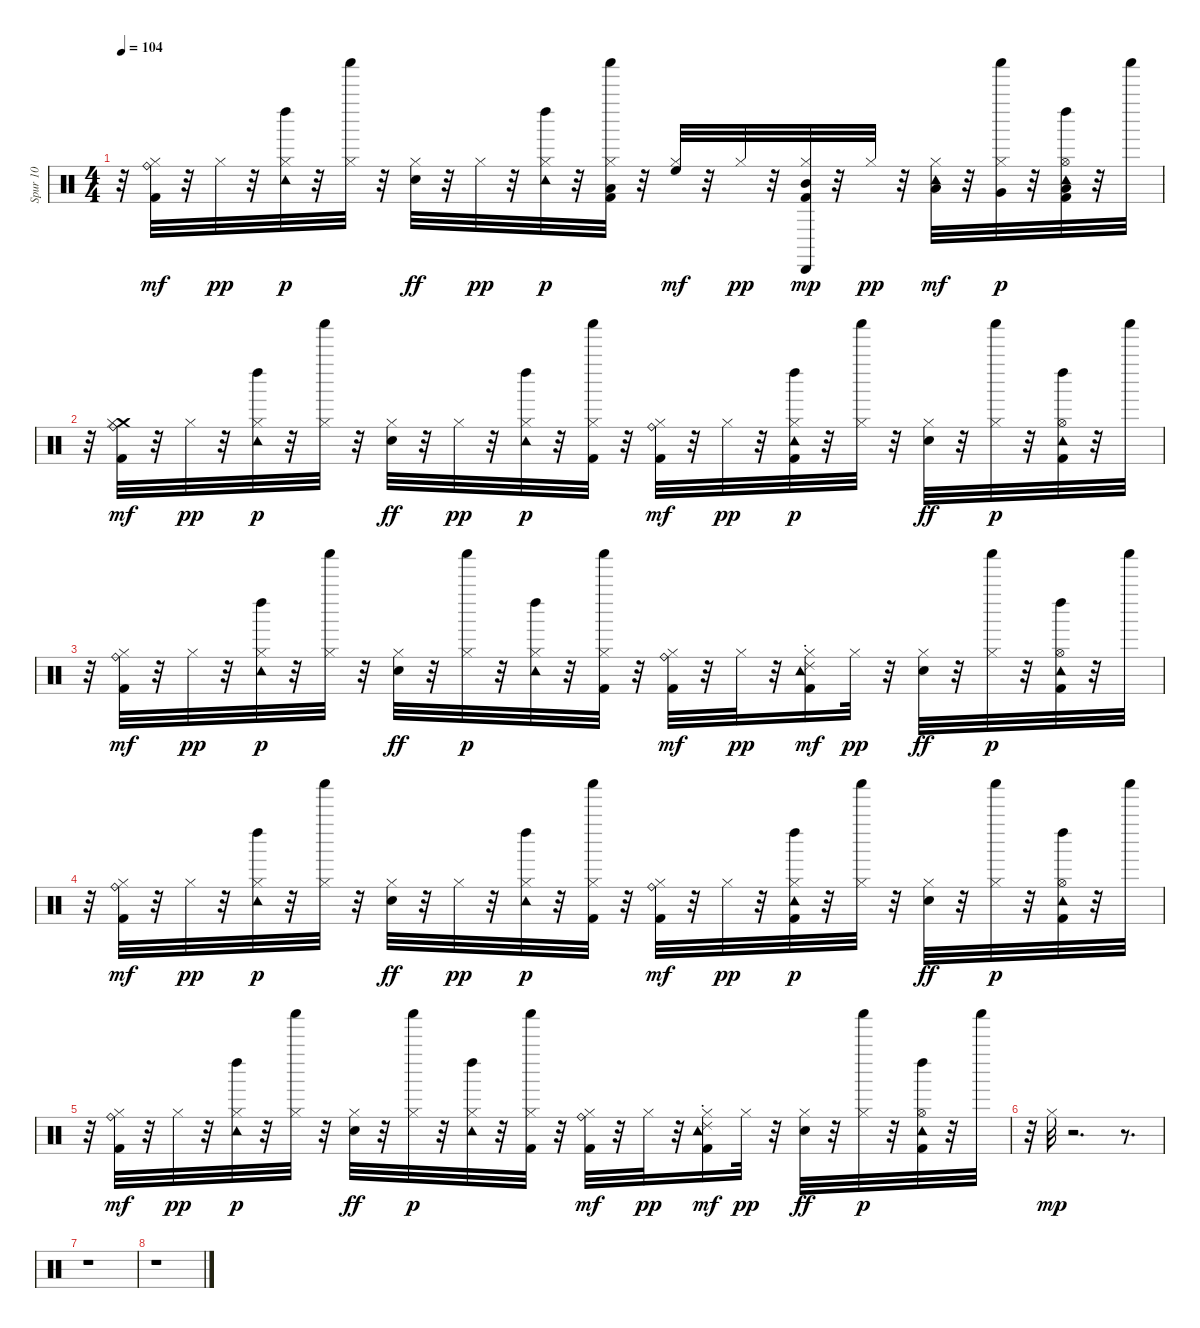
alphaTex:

\track ("Spur 10" "Spur 10") {instrument percussion}
\staff {score}
\articulation defaults
\ts (4 4)
\tempo 104
\clef neutral
\ks c
r.32{dy p} ("Hi-Hat (closed)" "Ride (bell)" "Kick (hit) 2").32{dy mf} r.32 "Hi-Hat (closed)".32{dy pp} r.32 ("Hi-Hat (closed)" "Tambourine (hit)" "Left Maraca (hit)").32{dy p} r.32 ("Hi-Hat (closed)" "Shaker (hit)").32 r.32 ("Hi-Hat (closed)" "Snare (hit) 2").32{dy ff} r.32 "Hi-Hat (closed)".32{dy pp} r.32 ("Hi-Hat (closed)" "Tambourine (hit)" "Left Maraca (hit)").32{dy p} r.32 ("Low Floor Tom (hit)" "Hi-Hat (closed)" "Kick (hit) 2" "Shaker (hit)").32 r.32 ("Hi-Hat (closed)" "High Floor Tom (hit)").32{dy mf} r.32 "Hi-Hat (closed)".32{dy pp} r.32 ("Hi-Hat (closed)" "Mid Tom (hit)" "Cabasa (hit)" "Kick (hit) 2").32{dy mp} r.32 "Hi-Hat (closed)".32{dy pp} r.32 ("Hi-Hat (closed)" "Low Tom (hit)" "Tambourine (hit)").32{dy mf} r.32 ("Hi-Hat (closed)" "Very Low Tom (hit)" "Shaker (hit)").32{dy p} r.32 ("Low Floor Tom (hit)" "Hi-Hat (open)" "Tambourine (hit)" "Kick (hit) 2" "Left Maraca (hit)").32 r.32 "Shaker (hit)".32 |
r.32 ("Crash medium (hit)" "Hi-Hat (closed)" "Ride (bell)" "Kick (hit) 2").32{dy mf} r.32 "Hi-Hat (closed)".32{dy pp} r.32 ("Hi-Hat (closed)" "Tambourine (hit)" "Left Maraca (hit)").32{dy p} r.32 ("Hi-Hat (closed)" "Shaker (hit)").32 r.32 ("Hi-Hat (closed)" "Snare (hit) 2").32{dy ff} r.32 "Hi-Hat (closed)".32{dy pp} r.32 ("Hi-Hat (closed)" "Tambourine (hit)" "Left Maraca (hit)").32{dy p} r.32 ("Hi-Hat (closed)" "Kick (hit) 2" "Shaker (hit)").32 r.32 ("Hi-Hat (closed)" "Ride (bell)" "Kick (hit) 2").32{dy mf} r.32 "Hi-Hat (closed)".32{dy pp} r.32 ("Hi-Hat (closed)" "Tambourine (hit)" "Kick (hit) 2" "Left Maraca (hit)").32{dy p} r.32 ("Hi-Hat (closed)" "Shaker (hit)").32 r.32 ("Hi-Hat (closed)" "Snare (hit) 2").32{dy ff} r.32 ("Hi-Hat (closed)" "Shaker (hit)").32{dy p} r.32 ("Hi-Hat (open)" "Tambourine (hit)" "Kick (hit) 2" "Left Maraca (hit)").32 r.32 "Shaker (hit)".32 |
r.32 ("Hi-Hat (closed)" "Ride (bell)" "Kick (hit) 2").32{dy mf} r.32 "Hi-Hat (closed)".32{dy pp} r.32 ("Hi-Hat (closed)" "Tambourine (hit)" "Left Maraca (hit)").32{dy p} r.32 ("Hi-Hat (closed)" "Shaker (hit)").32 r.32 ("Hi-Hat (closed)" "Snare (hit) 2").32{dy ff} r.32 ("Hi-Hat (closed)" "Shaker (hit)").32{dy p} r.32 ("Hi-Hat (closed)" "Tambourine (hit)" "Left Maraca (hit)").32 r.32 ("Hi-Hat (closed)" "Kick (hit) 2" "Shaker (hit)").32 r.32 ("Hi-Hat (closed)" "Ride (bell)" "Kick (hit) 2").32{dy mf} r.32 "Hi-Hat (closed)".32{dy pp} r.32 ("Ride (choke) 2" "Hi-Hat (closed)" "Tambourine (hit)" "Kick (hit) 2").16{dy mf} "Hi-Hat (closed)".32{dy pp} r.32 ("Hi-Hat (closed)" "Snare (hit) 2").32{dy ff} r.32 ("Hi-Hat (closed)" "Shaker (hit)").32{dy p} r.32 ("Hi-Hat (open)" "Tambourine (hit)" "Kick (hit) 2" "Left Maraca (hit)").32 r.32 "Shaker (hit)".32 |
r.32 ("Hi-Hat (closed)" "Ride (bell)" "Kick (hit) 2").32{dy mf} r.32 "Hi-Hat (closed)".32{dy pp} r.32 ("Hi-Hat (closed)" "Tambourine (hit)" "Left Maraca (hit)").32{dy p} r.32 ("Hi-Hat (closed)" "Shaker (hit)").32 r.32 ("Hi-Hat (closed)" "Snare (hit) 2").32{dy ff} r.32 "Hi-Hat (closed)".32{dy pp} r.32 ("Hi-Hat (closed)" "Tambourine (hit)" "Left Maraca (hit)").32{dy p} r.32 ("Hi-Hat (closed)" "Kick (hit) 2" "Shaker (hit)").32 r.32 ("Hi-Hat (closed)" "Ride (bell)" "Kick (hit) 2").32{dy mf} r.32 "Hi-Hat (closed)".32{dy pp} r.32 ("Hi-Hat (closed)" "Tambourine (hit)" "Kick (hit) 2" "Left Maraca (hit)").32{dy p} r.32 ("Hi-Hat (closed)" "Shaker (hit)").32 r.32 ("Hi-Hat (closed)" "Snare (hit) 2").32{dy ff} r.32 ("Hi-Hat (closed)" "Shaker (hit)").32{dy p} r.32 ("Hi-Hat (open)" "Tambourine (hit)" "Kick (hit) 2" "Left Maraca (hit)").32 r.32 "Shaker (hit)".32 |
r.32 ("Hi-Hat (closed)" "Ride (bell)" "Kick (hit) 2").32{dy mf} r.32 "Hi-Hat (closed)".32{dy pp} r.32 ("Hi-Hat (closed)" "Tambourine (hit)" "Left Maraca (hit)").32{dy p} r.32 ("Hi-Hat (closed)" "Shaker (hit)").32 r.32 ("Hi-Hat (closed)" "Snare (hit) 2").32{dy ff} r.32 ("Hi-Hat (closed)" "Shaker (hit)").32{dy p} r.32 ("Hi-Hat (closed)" "Tambourine (hit)" "Left Maraca (hit)").32 r.32 ("Hi-Hat (closed)" "Kick (hit) 2" "Shaker (hit)").32 r.32 ("Hi-Hat (closed)" "Ride (bell)" "Kick (hit) 2").32{dy mf} r.32 "Hi-Hat (closed)".32{dy pp} r.32 ("Ride (choke) 2" "Hi-Hat (closed)" "Tambourine (hit)" "Kick (hit) 2").16{dy mf} "Hi-Hat (closed)".32{dy pp} r.32 ("Hi-Hat (closed)" "Snare (hit) 2").32{dy ff} r.32 ("Hi-Hat (closed)" "Shaker (hit)").32{dy p} r.32 ("Hi-Hat (open)" "Tambourine (hit)" "Kick (hit) 2" "Left Maraca (hit)").32 r.32 "Shaker (hit)".32 |
r.32 "Hi-Hat (closed)".32{dy mp} r.2{d} r.8{d} |
r.1 |
r.1
